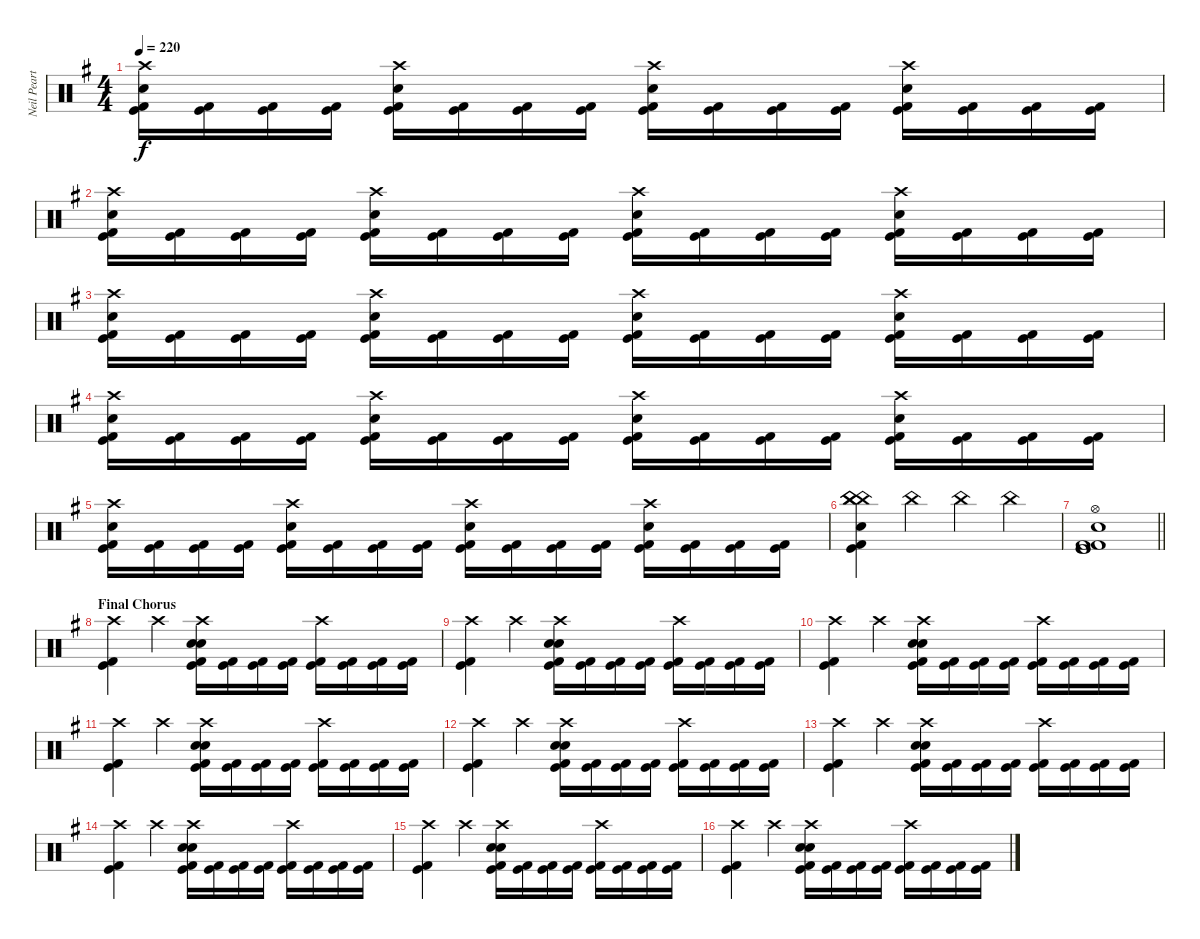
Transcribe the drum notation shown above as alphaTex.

\track ("Neil Peart" "Neil Peart") {instrument percussion}
\staff {score}
\articulation defaults
\ts (4 4)
\tempo 220
\clef neutral
\ks g
("Crash high (hit)" "Snare (hit) 2" "Kick (hit)" "Kick (hit) 2").16{dy f} ("Kick (hit)" "Kick (hit) 2").16 ("Kick (hit)" "Kick (hit) 2").16 ("Kick (hit)" "Kick (hit) 2").16 ("Crash high (hit)" "Snare (hit) 2" "Kick (hit)" "Kick (hit) 2").16 ("Kick (hit)" "Kick (hit) 2").16 ("Kick (hit)" "Kick (hit) 2").16 ("Kick (hit)" "Kick (hit) 2").16 ("Crash high (hit)" "Snare (hit) 2" "Kick (hit)" "Kick (hit) 2").16 ("Kick (hit)" "Kick (hit) 2").16 ("Kick (hit)" "Kick (hit) 2").16 ("Kick (hit)" "Kick (hit) 2").16 ("Crash high (hit)" "Snare (hit) 2" "Kick (hit)" "Kick (hit) 2").16 ("Kick (hit)" "Kick (hit) 2").16 ("Kick (hit)" "Kick (hit) 2").16 ("Kick (hit)" "Kick (hit) 2").16 |
("Crash high (hit)" "Snare (hit) 2" "Kick (hit)" "Kick (hit) 2").16 ("Kick (hit)" "Kick (hit) 2").16 ("Kick (hit)" "Kick (hit) 2").16 ("Kick (hit)" "Kick (hit) 2").16 ("Crash high (hit)" "Snare (hit) 2" "Kick (hit)" "Kick (hit) 2").16 ("Kick (hit)" "Kick (hit) 2").16 ("Kick (hit)" "Kick (hit) 2").16 ("Kick (hit)" "Kick (hit) 2").16 ("Crash high (hit)" "Snare (hit) 2" "Kick (hit)" "Kick (hit) 2").16 ("Kick (hit)" "Kick (hit) 2").16 ("Kick (hit)" "Kick (hit) 2").16 ("Kick (hit)" "Kick (hit) 2").16 ("Crash high (hit)" "Snare (hit) 2" "Kick (hit)" "Kick (hit) 2").16 ("Kick (hit)" "Kick (hit) 2").16 ("Kick (hit)" "Kick (hit) 2").16 ("Kick (hit)" "Kick (hit) 2").16 |
("Crash high (hit)" "Snare (hit) 2" "Kick (hit)" "Kick (hit) 2").16 ("Kick (hit)" "Kick (hit) 2").16 ("Kick (hit)" "Kick (hit) 2").16 ("Kick (hit)" "Kick (hit) 2").16 ("Crash high (hit)" "Snare (hit) 2" "Kick (hit)" "Kick (hit) 2").16 ("Kick (hit)" "Kick (hit) 2").16 ("Kick (hit)" "Kick (hit) 2").16 ("Kick (hit)" "Kick (hit) 2").16 ("Crash high (hit)" "Snare (hit) 2" "Kick (hit)" "Kick (hit) 2").16 ("Kick (hit)" "Kick (hit) 2").16 ("Kick (hit)" "Kick (hit) 2").16 ("Kick (hit)" "Kick (hit) 2").16 ("Crash high (hit)" "Snare (hit) 2" "Kick (hit)" "Kick (hit) 2").16 ("Kick (hit)" "Kick (hit) 2").16 ("Kick (hit)" "Kick (hit) 2").16 ("Kick (hit)" "Kick (hit) 2").16 |
("Crash high (hit)" "Snare (hit) 2" "Kick (hit)" "Kick (hit) 2").16 ("Kick (hit)" "Kick (hit) 2").16 ("Kick (hit)" "Kick (hit) 2").16 ("Kick (hit)" "Kick (hit) 2").16 ("Crash high (hit)" "Snare (hit) 2" "Kick (hit)" "Kick (hit) 2").16 ("Kick (hit)" "Kick (hit) 2").16 ("Kick (hit)" "Kick (hit) 2").16 ("Kick (hit)" "Kick (hit) 2").16 ("Crash high (hit)" "Snare (hit) 2" "Kick (hit)" "Kick (hit) 2").16 ("Kick (hit)" "Kick (hit) 2").16 ("Kick (hit)" "Kick (hit) 2").16 ("Kick (hit)" "Kick (hit) 2").16 ("Crash high (hit)" "Snare (hit) 2" "Kick (hit)" "Kick (hit) 2").16 ("Kick (hit)" "Kick (hit) 2").16 ("Kick (hit)" "Kick (hit) 2").16 ("Kick (hit)" "Kick (hit) 2").16 |
("Crash high (hit)" "Snare (hit) 2" "Kick (hit)" "Kick (hit) 2").16 ("Kick (hit)" "Kick (hit) 2").16 ("Kick (hit)" "Kick (hit) 2").16 ("Kick (hit)" "Kick (hit) 2").16 ("Crash high (hit)" "Snare (hit) 2" "Kick (hit)" "Kick (hit) 2").16 ("Kick (hit)" "Kick (hit) 2").16 ("Kick (hit)" "Kick (hit) 2").16 ("Kick (hit)" "Kick (hit) 2").16 ("Crash high (hit)" "Snare (hit) 2" "Kick (hit)" "Kick (hit) 2").16 ("Kick (hit)" "Kick (hit) 2").16 ("Kick (hit)" "Kick (hit) 2").16 ("Kick (hit)" "Kick (hit) 2").16 ("Crash high (hit)" "Snare (hit) 2" "Kick (hit)" "Kick (hit) 2").16 ("Kick (hit)" "Kick (hit) 2").16 ("Kick (hit)" "Kick (hit) 2").16 ("Kick (hit)" "Kick (hit) 2").16 |
("Kick (hit)" "Kick (hit) 2" "Snare (hit) 2" "China (hit)" "China (hit)" "China (hit)").4 "China (hit)".4 "China (hit)".4 "China (hit)".4 |
\barLineRight lightlight
("Kick (hit) 2" "Kick (hit)" "Hi-Hat (open)" "Snare (hit) 2" "Kick (hit) 2" "Kick (hit)").1 |
\section ("" "Final Chorus")
("Crash high (hit)" "Kick (hit)" "Kick (hit) 2").4 "Crash high (hit)".4 ("Snare (hit) 2" "Crash high (hit)" "Snare (hit) 2" "Kick (hit)" "Kick (hit) 2").16 ("Kick (hit)" "Kick (hit) 2").16 ("Kick (hit)" "Kick (hit) 2").16 ("Kick (hit)" "Kick (hit) 2").16 ("Crash high (hit)" "Kick (hit)" "Kick (hit) 2").16 ("Kick (hit)" "Kick (hit) 2").16 ("Kick (hit)" "Kick (hit) 2").16 ("Kick (hit)" "Kick (hit) 2").16 |
("Crash high (hit)" "Kick (hit)" "Kick (hit) 2").4 "Crash high (hit)".4 ("Snare (hit) 2" "Crash high (hit)" "Snare (hit) 2" "Kick (hit)" "Kick (hit) 2").16 ("Kick (hit)" "Kick (hit) 2").16 ("Kick (hit)" "Kick (hit) 2").16 ("Kick (hit)" "Kick (hit) 2").16 ("Crash high (hit)" "Kick (hit)" "Kick (hit) 2").16 ("Kick (hit)" "Kick (hit) 2").16 ("Kick (hit)" "Kick (hit) 2").16 ("Kick (hit)" "Kick (hit) 2").16 |
("Crash high (hit)" "Kick (hit)" "Kick (hit) 2").4 "Crash high (hit)".4 ("Snare (hit) 2" "Crash high (hit)" "Snare (hit) 2" "Kick (hit)" "Kick (hit) 2").16 ("Kick (hit)" "Kick (hit) 2").16 ("Kick (hit)" "Kick (hit) 2").16 ("Kick (hit)" "Kick (hit) 2").16 ("Crash high (hit)" "Kick (hit)" "Kick (hit) 2").16 ("Kick (hit)" "Kick (hit) 2").16 ("Kick (hit)" "Kick (hit) 2").16 ("Kick (hit)" "Kick (hit) 2").16 |
("Crash high (hit)" "Kick (hit)" "Kick (hit) 2").4 "Crash high (hit)".4 ("Snare (hit) 2" "Crash high (hit)" "Snare (hit) 2" "Kick (hit)" "Kick (hit) 2").16 ("Kick (hit)" "Kick (hit) 2").16 ("Kick (hit)" "Kick (hit) 2").16 ("Kick (hit)" "Kick (hit) 2").16 ("Crash high (hit)" "Kick (hit)" "Kick (hit) 2").16 ("Kick (hit)" "Kick (hit) 2").16 ("Kick (hit)" "Kick (hit) 2").16 ("Kick (hit)" "Kick (hit) 2").16 |
("Crash high (hit)" "Kick (hit)" "Kick (hit) 2").4 "Crash high (hit)".4 ("Snare (hit) 2" "Crash high (hit)" "Snare (hit) 2" "Kick (hit)" "Kick (hit) 2").16 ("Kick (hit)" "Kick (hit) 2").16 ("Kick (hit)" "Kick (hit) 2").16 ("Kick (hit)" "Kick (hit) 2").16 ("Crash high (hit)" "Kick (hit)" "Kick (hit) 2").16 ("Kick (hit)" "Kick (hit) 2").16 ("Kick (hit)" "Kick (hit) 2").16 ("Kick (hit)" "Kick (hit) 2").16 |
("Crash high (hit)" "Kick (hit)" "Kick (hit) 2").4 "Crash high (hit)".4 ("Snare (hit) 2" "Crash high (hit)" "Snare (hit) 2" "Kick (hit)" "Kick (hit) 2").16 ("Kick (hit)" "Kick (hit) 2").16 ("Kick (hit)" "Kick (hit) 2").16 ("Kick (hit)" "Kick (hit) 2").16 ("Crash high (hit)" "Kick (hit)" "Kick (hit) 2").16 ("Kick (hit)" "Kick (hit) 2").16 ("Kick (hit)" "Kick (hit) 2").16 ("Kick (hit)" "Kick (hit) 2").16 |
("Crash high (hit)" "Kick (hit)" "Kick (hit) 2").4 "Crash high (hit)".4 ("Snare (hit) 2" "Crash high (hit)" "Snare (hit) 2" "Kick (hit)" "Kick (hit) 2").16 ("Kick (hit)" "Kick (hit) 2").16 ("Kick (hit)" "Kick (hit) 2").16 ("Kick (hit)" "Kick (hit) 2").16 ("Crash high (hit)" "Kick (hit)" "Kick (hit) 2").16 ("Kick (hit)" "Kick (hit) 2").16 ("Kick (hit)" "Kick (hit) 2").16 ("Kick (hit)" "Kick (hit) 2").16 |
("Crash high (hit)" "Kick (hit)" "Kick (hit) 2").4 "Crash high (hit)".4 ("Snare (hit) 2" "Crash high (hit)" "Snare (hit) 2" "Kick (hit)" "Kick (hit) 2").16 ("Kick (hit)" "Kick (hit) 2").16 ("Kick (hit)" "Kick (hit) 2").16 ("Kick (hit)" "Kick (hit) 2").16 ("Crash high (hit)" "Kick (hit)" "Kick (hit) 2").16 ("Kick (hit)" "Kick (hit) 2").16 ("Kick (hit)" "Kick (hit) 2").16 ("Kick (hit)" "Kick (hit) 2").16 |
("Crash high (hit)" "Kick (hit)" "Kick (hit) 2").4 "Crash high (hit)".4 ("Snare (hit) 2" "Crash high (hit)" "Snare (hit) 2" "Kick (hit)" "Kick (hit) 2").16 ("Kick (hit)" "Kick (hit) 2").16 ("Kick (hit)" "Kick (hit) 2").16 ("Kick (hit)" "Kick (hit) 2").16 ("Crash high (hit)" "Kick (hit)" "Kick (hit) 2").16 ("Kick (hit)" "Kick (hit) 2").16 ("Kick (hit)" "Kick (hit) 2").16 ("Kick (hit)" "Kick (hit) 2").16
